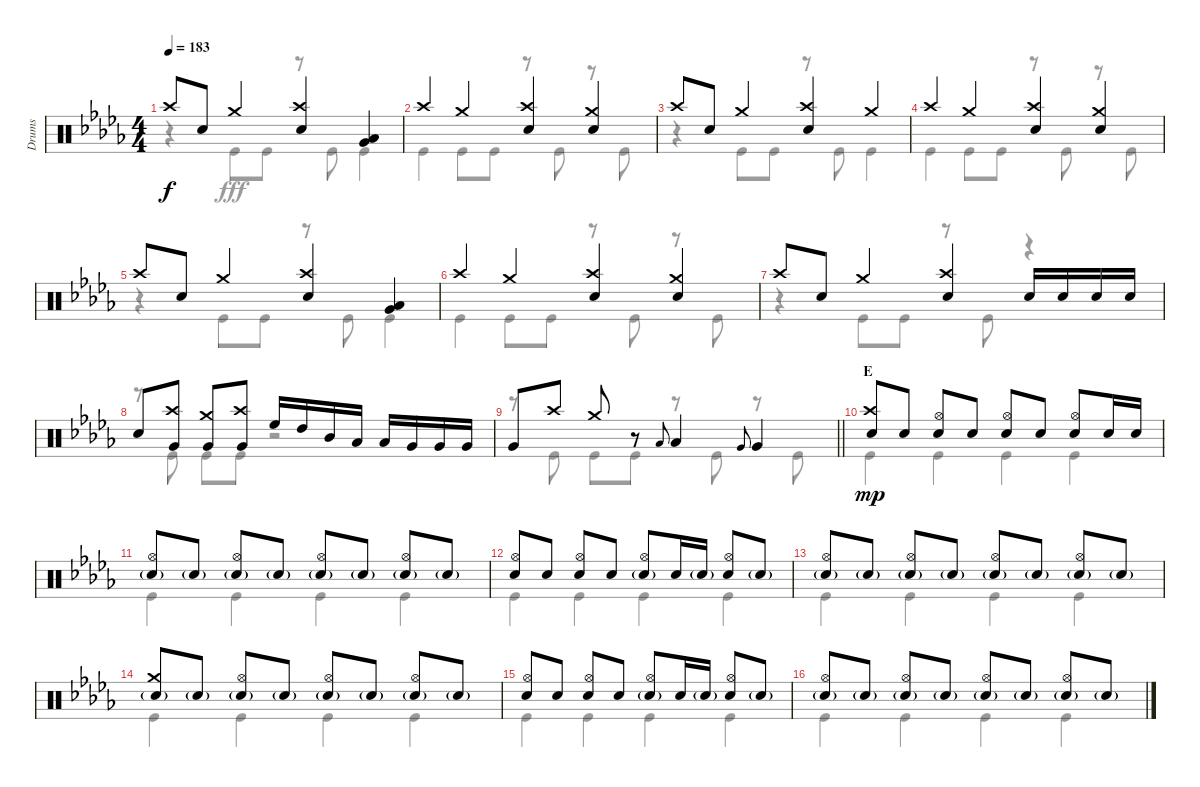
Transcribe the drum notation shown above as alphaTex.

\track ("Drums" "Drums") {instrument percussion}
\staff {score}
\articulation defaults
\voice
\ts (4 4)
\tempo 183
\clef neutral
\ks db "Crash high (hit)".8{dy f} "Snare (hit) 2".8 "Crash medium (hit)".4
("Crash high (hit)" "Snare (hit) 2").4 ("Low Tom (hit)" "Very Low Tom (hit)").4 |
"Crash high (hit)".4 "Crash medium (hit)".4 ("Crash high (hit)" "Snare (hit) 2").4 ("Crash medium (hit)" "Snare (hit) 2").4 |
"Crash high (hit)".8 "Snare (hit) 2".8 "Crash medium (hit)".4 ("Crash high (hit)" "Snare (hit) 2").4 "Crash medium (hit)".4 |
"Crash high (hit)".4 "Crash medium (hit)".4 ("Crash high (hit)" "Snare (hit) 2").4 ("Crash medium (hit)" "Snare (hit) 2").4 |
"Crash high (hit)".8 "Snare (hit) 2".8 "Crash medium (hit)".4 ("Crash high (hit)" "Snare (hit) 2").4 ("Low Tom (hit)" "Very Low Tom (hit)").4 |
"Crash high (hit)".4 "Crash medium (hit)".4 ("Crash high (hit)" "Snare (hit) 2").4 ("Crash medium (hit)" "Snare (hit) 2").4 |
"Crash high (hit)".8 "Snare (hit) 2".8 "Crash medium (hit)".4 ("Crash high (hit)" "Snare (hit) 2").4 "Snare (hit) 2".16 "Snare (hit) 2".16 "Snare (hit) 2".16 "Snare (hit) 2".16 |
"Snare (hit) 2".8 ("Crash high (hit)" "Very Low Tom (hit)").8 ("Crash medium (hit)" "Very Low Tom (hit)").8 ("Crash high (hit)" "Very Low Tom (hit)").8 "High Floor Tom (hit)".16 "High Tom (hit)".16 "Mid Tom (hit)".16 "Low Tom (hit)".16 "Low Tom (hit)".16 "Very Low Tom (hit)".16 "Very Low Tom (hit)".16 "Very Low Tom (hit)".16 |
\barLineRight lightlight "Very Low Tom (hit)".8 "Crash high (hit)".8 "Crash medium (hit)".8
r.8 "Low Tom (hit)".8{gr onbeat} "Low Tom (hit)".4 "Very Low Tom (hit)".8{gr onbeat} "Very Low Tom (hit)".4 |
\section ("" "E")
("Crash high (hit)" "Snare (hit) 2").8{dy mp} "Snare (hit) 2".8 ("Hi-Hat (open)" "Snare (hit) 2").8 "Snare (hit) 2".8 ("Hi-Hat (open)" "Snare (hit) 2").8 "Snare (hit) 2".8 ("Hi-Hat (open)" "Snare (hit) 2").8 "Snare (hit) 2".16 "Snare (hit) 2".16 |
("Hi-Hat (open)" "Snare (hit) 2"{g}).8 "Snare (hit) 2"{g}.8 ("Hi-Hat (open)" "Snare (hit) 2"{g}).8 "Snare (hit) 2"{g}.8 ("Hi-Hat (open)" "Snare (hit) 2"{g}).8 "Snare (hit) 2"{g}.8 ("Hi-Hat (open)" "Snare (hit) 2"{g}).8 "Snare (hit) 2"{g}.8 |
("Hi-Hat (open)" "Snare (hit) 2").8 "Snare (hit) 2".8 ("Hi-Hat (open)" "Snare (hit) 2").8 "Snare (hit) 2".8 ("Hi-Hat (open)" "Snare (hit) 2"{g}).8 "Snare (hit) 2".16 "Snare (hit) 2"{g}.16 ("Hi-Hat (open)" "Snare (hit) 2").8 "Snare (hit) 2"{g}.8 |
("Hi-Hat (open)" "Snare (hit) 2"{g}).8 "Snare (hit) 2"{g}.8 ("Hi-Hat (open)" "Snare (hit) 2"{g}).8 "Snare (hit) 2"{g}.8 ("Hi-Hat (open)" "Snare (hit) 2"{g}).8 "Snare (hit) 2"{g}.8 ("Hi-Hat (open)" "Snare (hit) 2"{g}).8 "Snare (hit) 2"{g}.8 |
("Crash medium (hit)" "Snare (hit) 2"{g}).8 "Snare (hit) 2"{g}.8 ("Hi-Hat (open)" "Snare (hit) 2"{g}).8 "Snare (hit) 2"{g}.8 ("Hi-Hat (open)" "Snare (hit) 2"{g}).8 "Snare (hit) 2"{g}.8 ("Hi-Hat (open)" "Snare (hit) 2"{g}).8 "Snare (hit) 2"{g}.8 |
("Hi-Hat (open)" "Snare (hit) 2").8 "Snare (hit) 2".8 ("Hi-Hat (open)" "Snare (hit) 2").8 "Snare (hit) 2".8 ("Hi-Hat (open)" "Snare (hit) 2"{g}).8 "Snare (hit) 2".16 "Snare (hit) 2"{g}.16 ("Hi-Hat (open)" "Snare (hit) 2").8 "Snare (hit) 2"{g}.8 |
("Hi-Hat (open)" "Snare (hit) 2"{g}).8 "Snare (hit) 2"{g}.8 ("Hi-Hat (open)" "Snare (hit) 2"{g}).8 "Snare (hit) 2"{g}.8 ("Hi-Hat (open)" "Snare (hit) 2"{g}).8 "Snare (hit) 2"{g}.8 ("Hi-Hat (open)" "Snare (hit) 2"{g}).8 "Snare (hit) 2"{g}.8
\voice
\clef neutral
\ottava regular
\simile none
\ks db
r.4{dy fff} "Kick (hit)".8 "Kick (hit)".8 r.8 "Kick (hit)".8 "Kick (hit)".4 |
"Kick (hit)".4 "Kick (hit)".8 "Kick (hit)".8 r.8 "Kick (hit)".8 r.8 "Kick (hit)".8 |
r.4 "Kick (hit)".8 "Kick (hit)".8 r.8 "Kick (hit)".8 "Kick (hit)".4 |
"Kick (hit)".4 "Kick (hit)".8 "Kick (hit)".8 r.8 "Kick (hit)".8 r.8 "Kick (hit)".8 |
r.4 "Kick (hit)".8 "Kick (hit)".8 r.8 "Kick (hit)".8 "Kick (hit)".4 |
"Kick (hit)".4 "Kick (hit)".8 "Kick (hit)".8 r.8 "Kick (hit)".8 r.8 "Kick (hit)".8 |
r.4 "Kick (hit)".8 "Kick (hit)".8 r.8 "Kick (hit)".8 r.4 |
r.8 "Kick (hit)".8 "Kick (hit)".8 "Kick (hit)".8 r.2 |
\barLineRight lightlight
r.8 "Kick (hit)".8 "Kick (hit)".8 "Kick (hit)".8 r.8 "Kick (hit)".8 r.8 "Kick (hit)".8 |
"Kick (hit)".4 "Kick (hit)".4 "Kick (hit)".4 "Kick (hit)".4 |
"Kick (hit)".4 "Kick (hit)".4 "Kick (hit)".4 "Kick (hit)".4 |
"Kick (hit)".4 "Kick (hit)".4 "Kick (hit)".4 "Kick (hit)".4 |
"Kick (hit)".4 "Kick (hit)".4 "Kick (hit)".4 "Kick (hit)".4 |
"Kick (hit)".4 "Kick (hit)".4 "Kick (hit)".4 "Kick (hit)".4 |
"Kick (hit)".4 "Kick (hit)".4 "Kick (hit)".4 "Kick (hit)".4 |
"Kick (hit)".4 "Kick (hit)".4 "Kick (hit)".4 "Kick (hit)".4
